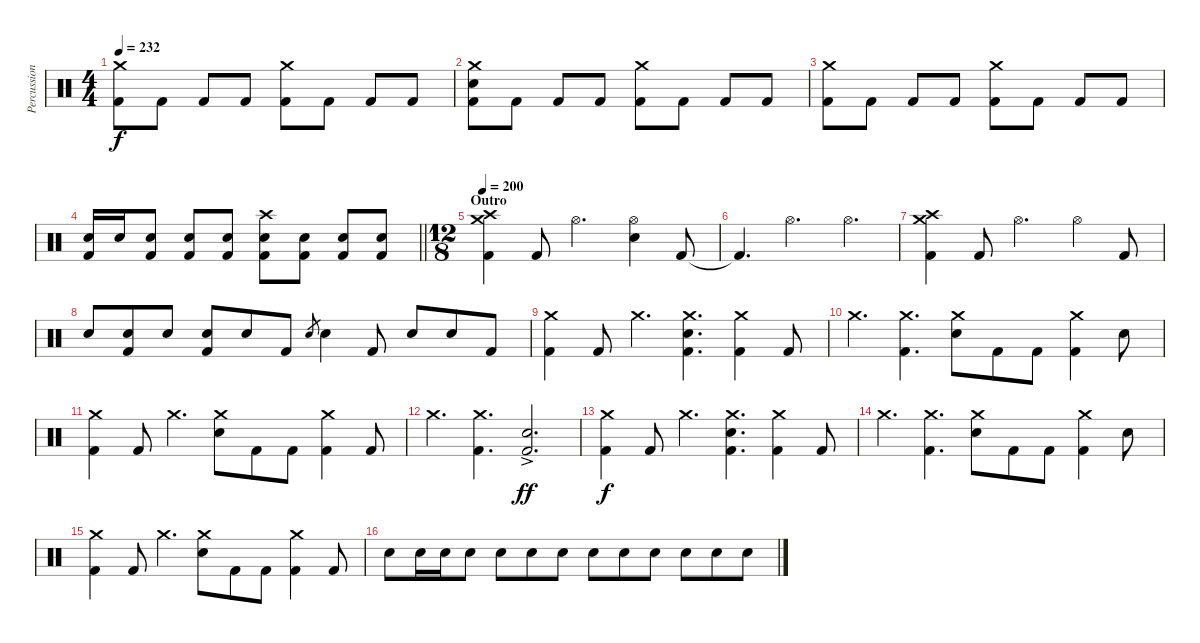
\track ("Percussion" "Percussion") {instrument percussion}
\staff {score}
\articulation defaults
\ts (4 4)
\tempo 232
\clef neutral
\ks c
("Crash medium (hit)" "Kick (hit) 2").8{dy f} "Kick (hit) 2".8 "Kick (hit) 2".8 "Kick (hit) 2".8 ("Crash medium (hit)" "Kick (hit) 2").8 "Kick (hit) 2".8 "Kick (hit) 2".8 "Kick (hit) 2".8 |
("Crash medium (hit)" "Electric Snare (hit)" "Kick (hit) 2").8 "Kick (hit) 2".8 "Kick (hit) 2".8 "Kick (hit) 2".8 ("Crash medium (hit)" "Kick (hit) 2").8 "Kick (hit) 2".8 "Kick (hit) 2".8 "Kick (hit) 2".8 |
("Crash medium (hit)" "Kick (hit) 2").8 "Kick (hit) 2".8 "Kick (hit) 2".8 "Kick (hit) 2".8 ("Crash medium (hit)" "Kick (hit) 2").8 "Kick (hit) 2".8 "Kick (hit) 2".8 "Kick (hit) 2".8 |
\barLineRight lightlight
("Electric Snare (hit)" "Kick (hit) 2").16 "Electric Snare (hit)".16 ("Electric Snare (hit)" "Kick (hit) 2").8 ("Electric Snare (hit)" "Kick (hit) 2").8 ("Electric Snare (hit)" "Kick (hit) 2").8 ("Crash high (hit)" "Electric Snare (hit)" "Kick (hit) 2").8 ("Electric Snare (hit)" "Kick (hit) 2").8 ("Electric Snare (hit)" "Kick (hit) 2").8 ("Electric Snare (hit)" "Kick (hit) 2").8 |
\ts (12 8)
\section ("" "Outro")
\tempo 200
("Crash medium (hit)" "Crash high (hit)" "Kick (hit) 2").4 "Kick (hit) 2".8{volume 12} "Hi-Hat (open)".2{d} ("Hi-Hat (open)" "Electric Snare (hit)").4 "Kick (hit) 2".8 |
"Kick (hit) 2"{t}.4{d} "Hi-Hat (open)".2{d} "Hi-Hat (open)".4{d} |
("Crash medium (hit)" "Crash high (hit)" "Kick (hit) 2").4 "Kick (hit) 2".8 "Hi-Hat (open)".2{d} "Hi-Hat (open)".4 "Kick (hit) 2".8 |
"Electric Snare (hit)".8 ("Electric Snare (hit)" "Kick (hit) 2").8 "Electric Snare (hit)".8 ("Electric Snare (hit)" "Kick (hit) 2").8 "Electric Snare (hit)".8 "Kick (hit) 2".8 "Electric Snare (hit)".8{gr} "Electric Snare (hit)".4 "Kick (hit) 2".8 "Electric Snare (hit)".8 "Electric Snare (hit)".8 "Kick (hit) 2".8 |
("Crash medium (hit)" "Kick (hit) 2").4{volume 14} "Kick (hit) 2".8 "Crash medium (hit)".4{d} ("Crash medium (hit)" "Electric Snare (hit)" "Kick (hit) 2").4{d} ("Crash medium (hit)" "Kick (hit) 2").4 "Kick (hit) 2".8 |
"Crash medium (hit)".4{d} ("Crash medium (hit)" "Kick (hit) 2").4{d} ("Crash medium (hit)" "Electric Snare (hit)").8 "Kick (hit) 2".8 "Kick (hit) 2".8 ("Crash medium (hit)" "Kick (hit) 2").4 "Electric Snare (hit)".8 |
("Crash medium (hit)" "Kick (hit) 2").4 "Kick (hit) 2".8 "Crash medium (hit)".4{d} ("Crash medium (hit)" "Electric Snare (hit)").8 "Kick (hit) 2".8 "Kick (hit) 2".8 ("Crash medium (hit)" "Kick (hit) 2").4 "Kick (hit) 2".8 |
"Crash medium (hit)".4{d} ("Crash medium (hit)" "Kick (hit) 2").4{d} ("Electric Snare (hit)"{ac} "Kick (hit) 2").2{d dy ff} |
("Crash medium (hit)" "Kick (hit) 2").4{dy f} "Kick (hit) 2".8 "Crash medium (hit)".4{d} ("Crash medium (hit)" "Electric Snare (hit)" "Kick (hit) 2").4{d} ("Crash medium (hit)" "Kick (hit) 2").4 "Kick (hit) 2".8 |
"Crash medium (hit)".4{d} ("Crash medium (hit)" "Kick (hit) 2").4{d} ("Crash medium (hit)" "Electric Snare (hit)").8 "Kick (hit) 2".8 "Kick (hit) 2".8 ("Crash medium (hit)" "Kick (hit) 2").4 "Electric Snare (hit)".8 |
("Crash medium (hit)" "Kick (hit) 2").4 "Kick (hit) 2".8 "Crash medium (hit)".4{d} ("Crash medium (hit)" "Electric Snare (hit)").8 "Kick (hit) 2".8 "Kick (hit) 2".8 ("Crash medium (hit)" "Kick (hit) 2").4 "Kick (hit) 2".8 |
"Electric Snare (hit)".8 "Electric Snare (hit)".16 "Electric Snare (hit)".16 "Electric Snare (hit)".8 "Electric Snare (hit)".8 "Electric Snare (hit)".8 "Electric Snare (hit)".8 "Electric Snare (hit)".8 "Electric Snare (hit)".8 "Electric Snare (hit)".8 "Electric Snare (hit)".8 "Electric Snare (hit)".8 "Electric Snare (hit)".8
